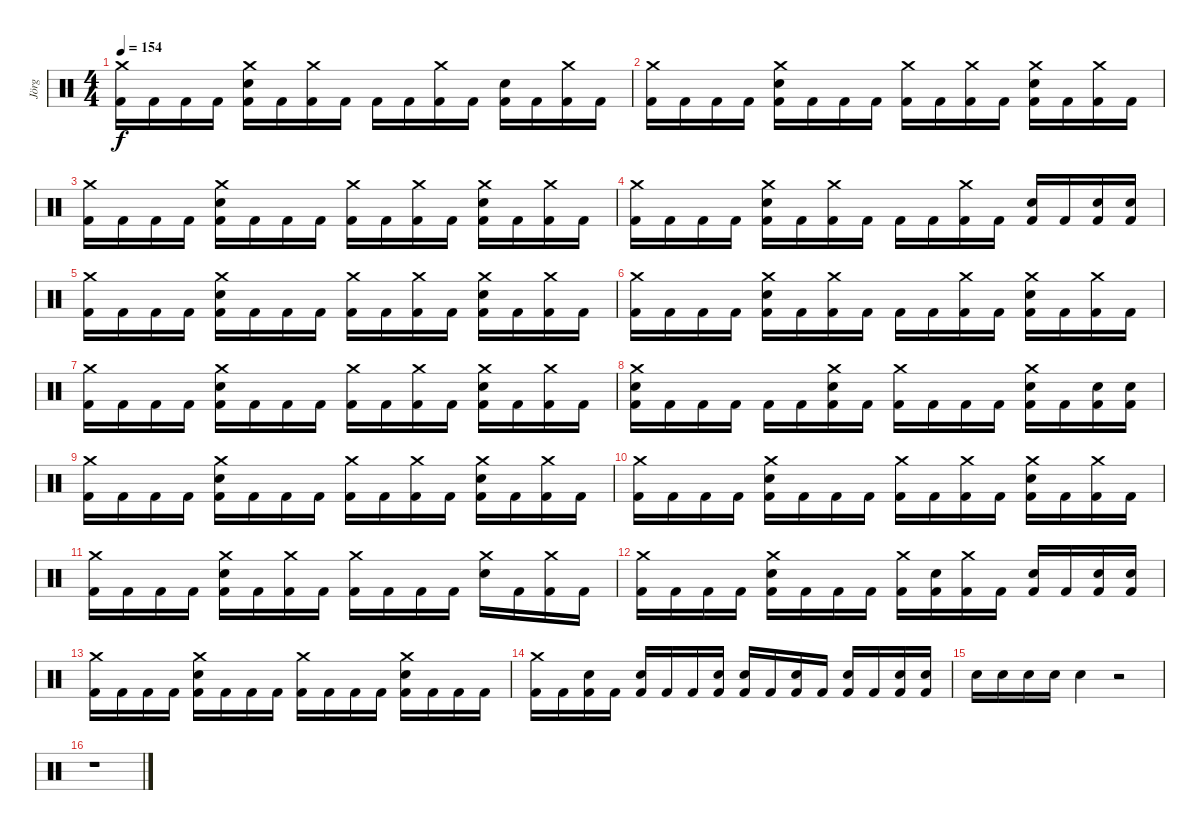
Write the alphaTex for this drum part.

\track ("Jörg" "Jörg") {instrument percussion}
\staff {score}
\articulation defaults
\ts (4 4)
\tempo 154
\clef neutral
\ks c
("Crash medium (hit)" "Kick (hit) 2").16{dy f} "Kick (hit) 2".16 "Kick (hit) 2".16 "Kick (hit) 2".16 ("Crash medium (hit)" "Kick (hit) 2" "Snare (hit) 2").16 "Kick (hit) 2".16 ("Crash medium (hit)" "Kick (hit) 2").16 "Kick (hit) 2".16 "Kick (hit) 2".16 "Kick (hit) 2".16 ("Crash medium (hit)" "Kick (hit) 2").16 "Kick (hit) 2".16 ("Kick (hit) 2" "Snare (hit) 2").16 "Kick (hit) 2".16 ("Crash medium (hit)" "Kick (hit) 2").16 "Kick (hit) 2".16 |
("Kick (hit) 2" "Crash medium (hit)").16 "Kick (hit) 2".16 "Kick (hit) 2".16 "Kick (hit) 2".16 ("Kick (hit) 2" "Snare (hit) 2" "Crash medium (hit)").16 "Kick (hit) 2".16 "Kick (hit) 2".16 "Kick (hit) 2".16 ("Kick (hit) 2" "Crash medium (hit)").16 "Kick (hit) 2".16 ("Crash medium (hit)" "Kick (hit) 2").16 "Kick (hit) 2".16 ("Kick (hit) 2" "Snare (hit) 2" "Crash medium (hit)").16 "Kick (hit) 2".16 ("Crash medium (hit)" "Kick (hit) 2").16 "Kick (hit) 2".16 |
("Kick (hit) 2" "Crash medium (hit)").16 "Kick (hit) 2".16 "Kick (hit) 2".16 "Kick (hit) 2".16 ("Kick (hit) 2" "Snare (hit) 2" "Crash medium (hit)").16 "Kick (hit) 2".16 "Kick (hit) 2".16 "Kick (hit) 2".16 ("Kick (hit) 2" "Crash medium (hit)").16 "Kick (hit) 2".16 ("Crash medium (hit)" "Kick (hit) 2").16 "Kick (hit) 2".16 ("Kick (hit) 2" "Snare (hit) 2" "Crash medium (hit)").16 "Kick (hit) 2".16 ("Crash medium (hit)" "Kick (hit) 2").16 "Kick (hit) 2".16 |
("Kick (hit) 2" "Crash medium (hit)").16 "Kick (hit) 2".16 "Kick (hit) 2".16 "Kick (hit) 2".16 ("Crash medium (hit)" "Kick (hit) 2" "Snare (hit) 2").16 "Kick (hit) 2".16 ("Crash medium (hit)" "Kick (hit) 2").16 "Kick (hit) 2".16 "Kick (hit) 2".16 "Kick (hit) 2".16 ("Crash medium (hit)" "Kick (hit) 2").16 "Kick (hit) 2".16 ("Kick (hit) 2" "Snare (hit) 2").16 "Kick (hit) 2".16 ("Snare (hit) 2" "Kick (hit) 2").16 ("Snare (hit) 2" "Kick (hit) 2").16 |
("Crash medium (hit)" "Kick (hit) 2").16 "Kick (hit) 2".16 "Kick (hit) 2".16 "Kick (hit) 2".16 ("Snare (hit) 2" "Crash medium (hit)" "Kick (hit) 2").16 "Kick (hit) 2".16 "Kick (hit) 2".16 "Kick (hit) 2".16 ("Crash medium (hit)" "Kick (hit) 2").16 "Kick (hit) 2".16 ("Crash medium (hit)" "Kick (hit) 2").16 "Kick (hit) 2".16 ("Crash medium (hit)" "Snare (hit) 2" "Kick (hit) 2").16 "Kick (hit) 2".16 ("Crash medium (hit)" "Kick (hit) 2").16 "Kick (hit) 2".16 |
("Crash medium (hit)" "Kick (hit) 2").16 "Kick (hit) 2".16 "Kick (hit) 2".16 "Kick (hit) 2".16 ("Snare (hit) 2" "Crash medium (hit)" "Kick (hit) 2").16 "Kick (hit) 2".16 ("Crash medium (hit)" "Kick (hit) 2").16 "Kick (hit) 2".16 "Kick (hit) 2".16 "Kick (hit) 2".16 ("Crash medium (hit)" "Kick (hit) 2").16 "Kick (hit) 2".16 ("Snare (hit) 2" "Crash medium (hit)" "Kick (hit) 2").16 "Kick (hit) 2".16 ("Crash medium (hit)" "Kick (hit) 2").16 "Kick (hit) 2".16 |
("Crash medium (hit)" "Kick (hit) 2").16 "Kick (hit) 2".16 "Kick (hit) 2".16 "Kick (hit) 2".16 ("Snare (hit) 2" "Crash medium (hit)" "Kick (hit) 2").16 "Kick (hit) 2".16 "Kick (hit) 2".16 "Kick (hit) 2".16 ("Crash medium (hit)" "Kick (hit) 2").16 "Kick (hit) 2".16 ("Crash medium (hit)" "Kick (hit) 2").16 "Kick (hit) 2".16 ("Snare (hit) 2" "Crash medium (hit)" "Kick (hit) 2").16 "Kick (hit) 2".16 ("Crash medium (hit)" "Kick (hit) 2").16 "Kick (hit) 2".16 |
("Snare (hit) 2" "Crash medium (hit)" "Kick (hit) 2").16 "Kick (hit) 2".16 "Kick (hit) 2".16 "Kick (hit) 2".16 "Kick (hit) 2".16 "Kick (hit) 2".16 ("Snare (hit) 2" "Crash medium (hit)" "Kick (hit) 2").16 "Kick (hit) 2".16 ("Crash medium (hit)" "Kick (hit) 2").16 "Kick (hit) 2".16 "Kick (hit) 2".16 "Kick (hit) 2".16 ("Snare (hit) 2" "Crash medium (hit)" "Kick (hit) 2").16 "Kick (hit) 2".16 ("Snare (hit) 2" "Kick (hit) 2").16 ("Snare (hit) 2" "Kick (hit) 2").16 |
("Crash medium (hit)" "Kick (hit) 2").16 "Kick (hit) 2".16 "Kick (hit) 2".16 "Kick (hit) 2".16 ("Snare (hit) 2" "Crash medium (hit)" "Kick (hit) 2").16 "Kick (hit) 2".16 "Kick (hit) 2".16 "Kick (hit) 2".16 ("Crash medium (hit)" "Kick (hit) 2").16 "Kick (hit) 2".16 ("Crash medium (hit)" "Kick (hit) 2").16 "Kick (hit) 2".16 ("Snare (hit) 2" "Crash medium (hit)" "Kick (hit) 2").16 "Kick (hit) 2".16 ("Crash medium (hit)" "Kick (hit) 2").16 "Kick (hit) 2".16 |
("Crash medium (hit)" "Kick (hit) 2").16 "Kick (hit) 2".16 "Kick (hit) 2".16 "Kick (hit) 2".16 ("Snare (hit) 2" "Crash medium (hit)" "Kick (hit) 2").16 "Kick (hit) 2".16 "Kick (hit) 2".16 "Kick (hit) 2".16 ("Crash medium (hit)" "Kick (hit) 2").16 "Kick (hit) 2".16 ("Crash medium (hit)" "Kick (hit) 2").16 "Kick (hit) 2".16 ("Snare (hit) 2" "Crash medium (hit)" "Kick (hit) 2").16 "Kick (hit) 2".16 ("Crash medium (hit)" "Kick (hit) 2").16 "Kick (hit) 2".16 |
("Crash medium (hit)" "Kick (hit) 2").16 "Kick (hit) 2".16 "Kick (hit) 2".16 "Kick (hit) 2".16 ("Snare (hit) 2" "Crash medium (hit)" "Kick (hit) 2").16 "Kick (hit) 2".16 ("Crash medium (hit)" "Kick (hit) 2").16 "Kick (hit) 2".16 ("Crash medium (hit)" "Kick (hit) 2").16 "Kick (hit) 2".16 "Kick (hit) 2".16 "Kick (hit) 2".16 ("Snare (hit) 2" "Crash medium (hit)").16 "Kick (hit) 2".16 ("Crash medium (hit)" "Kick (hit) 2").16 "Kick (hit) 2".16 |
("Crash medium (hit)" "Kick (hit) 2").16 "Kick (hit) 2".16 "Kick (hit) 2".16 "Kick (hit) 2".16 ("Snare (hit) 2" "Crash medium (hit)" "Kick (hit) 2").16 "Kick (hit) 2".16 "Kick (hit) 2".16 "Kick (hit) 2".16 ("Crash medium (hit)" "Kick (hit) 2").16 ("Snare (hit) 2" "Kick (hit) 2").16 ("Crash medium (hit)" "Kick (hit) 2").16 "Kick (hit) 2".16 ("Snare (hit) 2" "Kick (hit) 2").16 "Kick (hit) 2".16 ("Snare (hit) 2" "Kick (hit) 2").16 ("Snare (hit) 2" "Kick (hit) 2").16 |
("Crash medium (hit)" "Kick (hit) 2").16 "Kick (hit) 2".16 "Kick (hit) 2".16 "Kick (hit) 2".16 ("Snare (hit) 2" "Crash medium (hit)" "Kick (hit) 2").16 "Kick (hit) 2".16 "Kick (hit) 2".16 "Kick (hit) 2".16 ("Crash medium (hit)" "Kick (hit) 2").16 "Kick (hit) 2".16 "Kick (hit) 2".16 "Kick (hit) 2".16 ("Snare (hit) 2" "Crash medium (hit)" "Kick (hit) 2").16 "Kick (hit) 2".16 "Kick (hit) 2".16 "Kick (hit) 2".16 |
("Crash medium (hit)" "Kick (hit) 2").16 "Kick (hit) 2".16 ("Snare (hit) 2" "Kick (hit) 2").16 "Kick (hit) 2".16 ("Snare (hit) 2" "Kick (hit) 2").16 "Kick (hit) 2".16 "Kick (hit) 2".16 ("Snare (hit) 2" "Kick (hit) 2").16 ("Snare (hit) 2" "Kick (hit) 2").16 "Kick (hit) 2".16 ("Snare (hit) 2" "Kick (hit) 2").16 "Kick (hit) 2".16 ("Snare (hit) 2" "Kick (hit) 2").16 "Kick (hit) 2".16 ("Snare (hit) 2" "Kick (hit) 2").16 ("Snare (hit) 2" "Kick (hit) 2").16 |
"Snare (hit) 2".16 "Snare (hit) 2".16 "Snare (hit) 2".16 "Snare (hit) 2".16 "Snare (hit) 2".4 r.2 |
r.1
